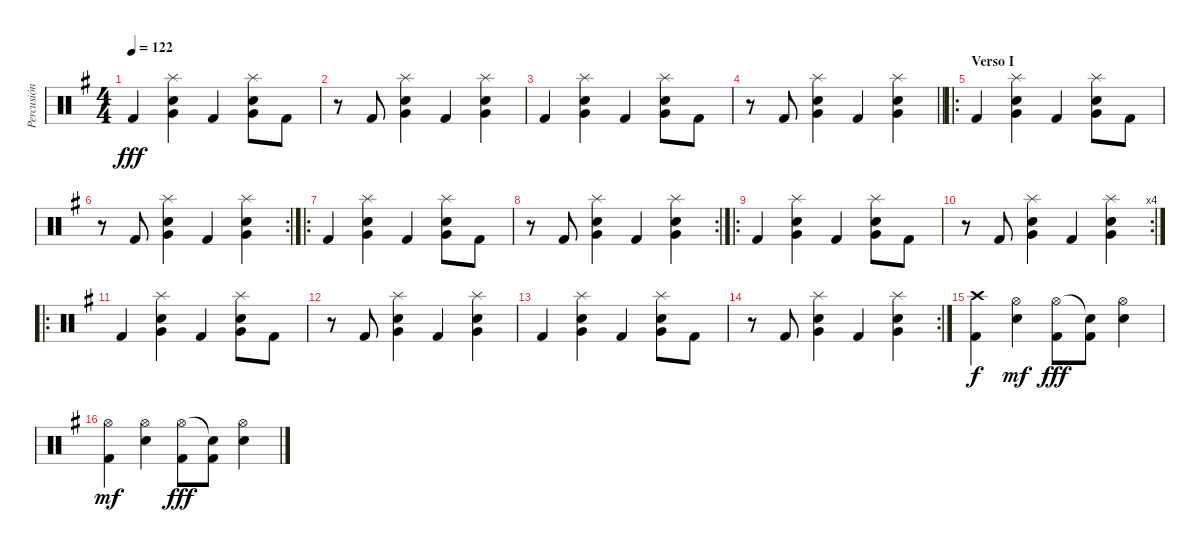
\track ("Percusión" "Percusión") {instrument percussion}
\staff {score}
\articulation defaults
\ts (4 4)
\tempo 122
\clef neutral
\ks g "Kick (hit) 2".4{dy fff}
("Splash (hit)" "Very Low Tom (hit)" "Snare (hit) 2").4 "Kick (hit) 2".4 ("Splash (hit)" "Very Low Tom (hit)" "Snare (hit) 2").8 "Kick (hit) 2".8 |
r.8 "Kick (hit) 2".8 ("Splash (hit)" "Very Low Tom (hit)" "Snare (hit) 2").4 "Kick (hit) 2".4 ("Splash (hit)" "Very Low Tom (hit)" "Snare (hit) 2").4 |
"Kick (hit) 2".4 ("Splash (hit)" "Very Low Tom (hit)" "Snare (hit) 2").4 "Kick (hit) 2".4 ("Splash (hit)" "Very Low Tom (hit)" "Snare (hit) 2").8 "Kick (hit) 2".8 |
\barLineRight lightlight
r.8 "Kick (hit) 2".8 ("Splash (hit)" "Very Low Tom (hit)" "Snare (hit) 2").4 "Kick (hit) 2".4 ("Splash (hit)" "Very Low Tom (hit)" "Snare (hit) 2").4 |
\ro
\section ("" "Verso I")
"Kick (hit) 2".4 ("Splash (hit)" "Very Low Tom (hit)" "Snare (hit) 2").4 "Kick (hit) 2".4 ("Splash (hit)" "Very Low Tom (hit)" "Snare (hit) 2").8 "Kick (hit) 2".8 |
\rc 2
r.8 "Kick (hit) 2".8 ("Splash (hit)" "Very Low Tom (hit)" "Snare (hit) 2").4 "Kick (hit) 2".4 ("Splash (hit)" "Very Low Tom (hit)" "Snare (hit) 2").4 |
\ro "Kick (hit) 2".4
("Splash (hit)" "Very Low Tom (hit)" "Snare (hit) 2").4 "Kick (hit) 2".4 ("Splash (hit)" "Very Low Tom (hit)" "Snare (hit) 2").8 "Kick (hit) 2".8 |
\rc 2
r.8 "Kick (hit) 2".8 ("Splash (hit)" "Very Low Tom (hit)" "Snare (hit) 2").4 "Kick (hit) 2".4 ("Splash (hit)" "Very Low Tom (hit)" "Snare (hit) 2").4 |
\ro "Kick (hit) 2".4
("Splash (hit)" "Very Low Tom (hit)" "Snare (hit) 2").4 "Kick (hit) 2".4 ("Splash (hit)" "Very Low Tom (hit)" "Snare (hit) 2").8 "Kick (hit) 2".8 |
\rc 4
r.8 "Kick (hit) 2".8 ("Splash (hit)" "Very Low Tom (hit)" "Snare (hit) 2").4 "Kick (hit) 2".4 ("Splash (hit)" "Very Low Tom (hit)" "Snare (hit) 2").4 |
\ro "Kick (hit) 2".4
("Splash (hit)" "Very Low Tom (hit)" "Snare (hit) 2").4 "Kick (hit) 2".4 ("Splash (hit)" "Very Low Tom (hit)" "Snare (hit) 2").8 "Kick (hit) 2".8 |
r.8 "Kick (hit) 2".8 ("Splash (hit)" "Very Low Tom (hit)" "Snare (hit) 2").4 "Kick (hit) 2".4 ("Splash (hit)" "Very Low Tom (hit)" "Snare (hit) 2").4 |
"Kick (hit) 2".4 ("Splash (hit)" "Very Low Tom (hit)" "Snare (hit) 2").4 "Kick (hit) 2".4 ("Splash (hit)" "Very Low Tom (hit)" "Snare (hit) 2").8 "Kick (hit) 2".8 |
\rc 2
r.8 "Kick (hit) 2".8 ("Splash (hit)" "Very Low Tom (hit)" "Snare (hit) 2").4 "Kick (hit) 2".4 ("Splash (hit)" "Very Low Tom (hit)" "Snare (hit) 2").4 |
("Crash high (hit)" "Kick (hit) 2").4{dy f} ("Hi-Hat (open)" "Snare (hit) 2").4{dy mf} ("Hi-Hat (open)" "Kick (hit) 2").8{dy fff} ("Snare (hit)"{t} "Kick (hit) 2").8 ("Hi-Hat (open)" "Snare (hit) 2").4 |
("Hi-Hat (open)" "Kick (hit) 2").4{dy mf} ("Hi-Hat (open)" "Snare (hit) 2").4 ("Hi-Hat (open)" "Kick (hit) 2").8{dy fff} ("Snare (hit)"{t} "Kick (hit) 2").8 ("Hi-Hat (open)" "Snare (hit) 2").4
